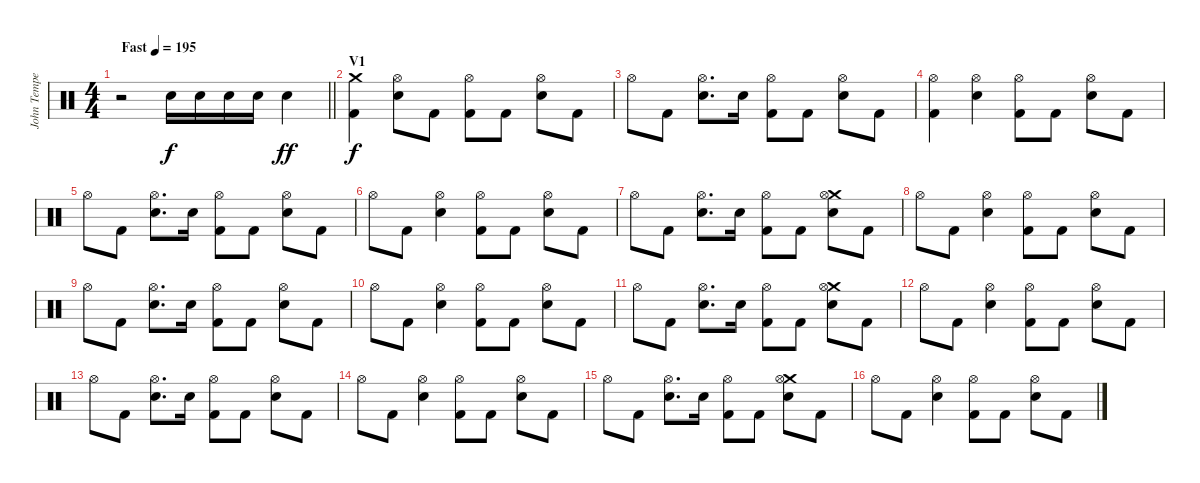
\track ("John Tempesta" "John Tempe") {instrument percussion}
\staff {score}
\articulation defaults
\ts (4 4)
\tempo (195 "Fast")
\clef neutral
\barLineRight lightlight
\ks c
r.2{dy f} "Electric Snare (hit)".16 "Electric Snare (hit)".16 "Electric Snare (hit)".16 "Electric Snare (hit)".16 "Electric Snare (hit)".4{dy ff} |
\section ("" "V1")
("Crash medium (hit)" "Kick (hit) 2").4{dy f} ("Hi-Hat (open)" "Electric Snare (hit)").8 "Kick (hit) 2".8 ("Hi-Hat (open)" "Kick (hit) 2").8 "Kick (hit) 2".8 ("Hi-Hat (open)" "Electric Snare (hit)").8 "Kick (hit) 2".8 |
"Hi-Hat (open)".8 "Kick (hit) 2".8 ("Hi-Hat (open)" "Electric Snare (hit)").8{d} "Electric Snare (hit)".16 ("Hi-Hat (open)" "Kick (hit) 2").8 "Kick (hit) 2".8 ("Hi-Hat (open)" "Electric Snare (hit)").8 "Kick (hit) 2".8 |
("Hi-Hat (open)" "Kick (hit) 2").4 ("Hi-Hat (open)" "Electric Snare (hit)").4 ("Hi-Hat (open)" "Kick (hit) 2").8 "Kick (hit) 2".8 ("Hi-Hat (open)" "Electric Snare (hit)").8 "Kick (hit) 2".8 |
"Hi-Hat (open)".8 "Kick (hit) 2".8 ("Hi-Hat (open)" "Electric Snare (hit)").8{d} "Electric Snare (hit)".16 ("Hi-Hat (open)" "Kick (hit) 2").8 "Kick (hit) 2".8 ("Hi-Hat (open)" "Electric Snare (hit)").8 "Kick (hit) 2".8 |
"Hi-Hat (open)".8 "Kick (hit) 2".8 ("Hi-Hat (open)" "Electric Snare (hit)").4 ("Hi-Hat (open)" "Kick (hit) 2").8 "Kick (hit) 2".8 ("Hi-Hat (open)" "Electric Snare (hit)").8 "Kick (hit) 2".8 |
"Hi-Hat (open)".8 "Kick (hit) 2".8 ("Hi-Hat (open)" "Electric Snare (hit)").8{d} "Electric Snare (hit)".16 ("Hi-Hat (open)" "Kick (hit) 2").8 "Kick (hit) 2".8 ("Crash medium (hit)" "Hi-Hat (open)" "Electric Snare (hit)").8 "Kick (hit) 2".8 |
"Hi-Hat (open)".8 "Kick (hit) 2".8 ("Hi-Hat (open)" "Electric Snare (hit)").4 ("Hi-Hat (open)" "Kick (hit) 2").8 "Kick (hit) 2".8 ("Hi-Hat (open)" "Electric Snare (hit)").8 "Kick (hit) 2".8 |
"Hi-Hat (open)".8 "Kick (hit) 2".8 ("Hi-Hat (open)" "Electric Snare (hit)").8{d} "Electric Snare (hit)".16 ("Hi-Hat (open)" "Kick (hit) 2").8 "Kick (hit) 2".8 ("Hi-Hat (open)" "Electric Snare (hit)").8 "Kick (hit) 2".8 |
"Hi-Hat (open)".8 "Kick (hit) 2".8 ("Hi-Hat (open)" "Electric Snare (hit)").4 ("Hi-Hat (open)" "Kick (hit) 2").8 "Kick (hit) 2".8 ("Hi-Hat (open)" "Electric Snare (hit)").8 "Kick (hit) 2".8 |
"Hi-Hat (open)".8 "Kick (hit) 2".8 ("Hi-Hat (open)" "Electric Snare (hit)").8{d} "Electric Snare (hit)".16 ("Hi-Hat (open)" "Kick (hit) 2").8 "Kick (hit) 2".8 ("Crash medium (hit)" "Hi-Hat (open)" "Electric Snare (hit)").8 "Kick (hit) 2".8 |
"Hi-Hat (open)".8 "Kick (hit) 2".8 ("Hi-Hat (open)" "Electric Snare (hit)").4 ("Hi-Hat (open)" "Kick (hit) 2").8 "Kick (hit) 2".8 ("Hi-Hat (open)" "Electric Snare (hit)").8 "Kick (hit) 2".8 |
"Hi-Hat (open)".8 "Kick (hit) 2".8 ("Hi-Hat (open)" "Electric Snare (hit)").8{d} "Electric Snare (hit)".16 ("Hi-Hat (open)" "Kick (hit) 2").8 "Kick (hit) 2".8 ("Hi-Hat (open)" "Electric Snare (hit)").8 "Kick (hit) 2".8 |
"Hi-Hat (open)".8 "Kick (hit) 2".8 ("Hi-Hat (open)" "Electric Snare (hit)").4 ("Hi-Hat (open)" "Kick (hit) 2").8 "Kick (hit) 2".8 ("Hi-Hat (open)" "Electric Snare (hit)").8 "Kick (hit) 2".8 |
"Hi-Hat (open)".8 "Kick (hit) 2".8 ("Hi-Hat (open)" "Electric Snare (hit)").8{d} "Electric Snare (hit)".16 ("Hi-Hat (open)" "Kick (hit) 2").8 "Kick (hit) 2".8 ("Crash medium (hit)" "Hi-Hat (open)" "Electric Snare (hit)").8 "Kick (hit) 2".8 |
"Hi-Hat (open)".8 "Kick (hit) 2".8 ("Hi-Hat (open)" "Electric Snare (hit)").4 ("Hi-Hat (open)" "Kick (hit) 2").8 "Kick (hit) 2".8 ("Hi-Hat (open)" "Electric Snare (hit)").8 "Kick (hit) 2".8
